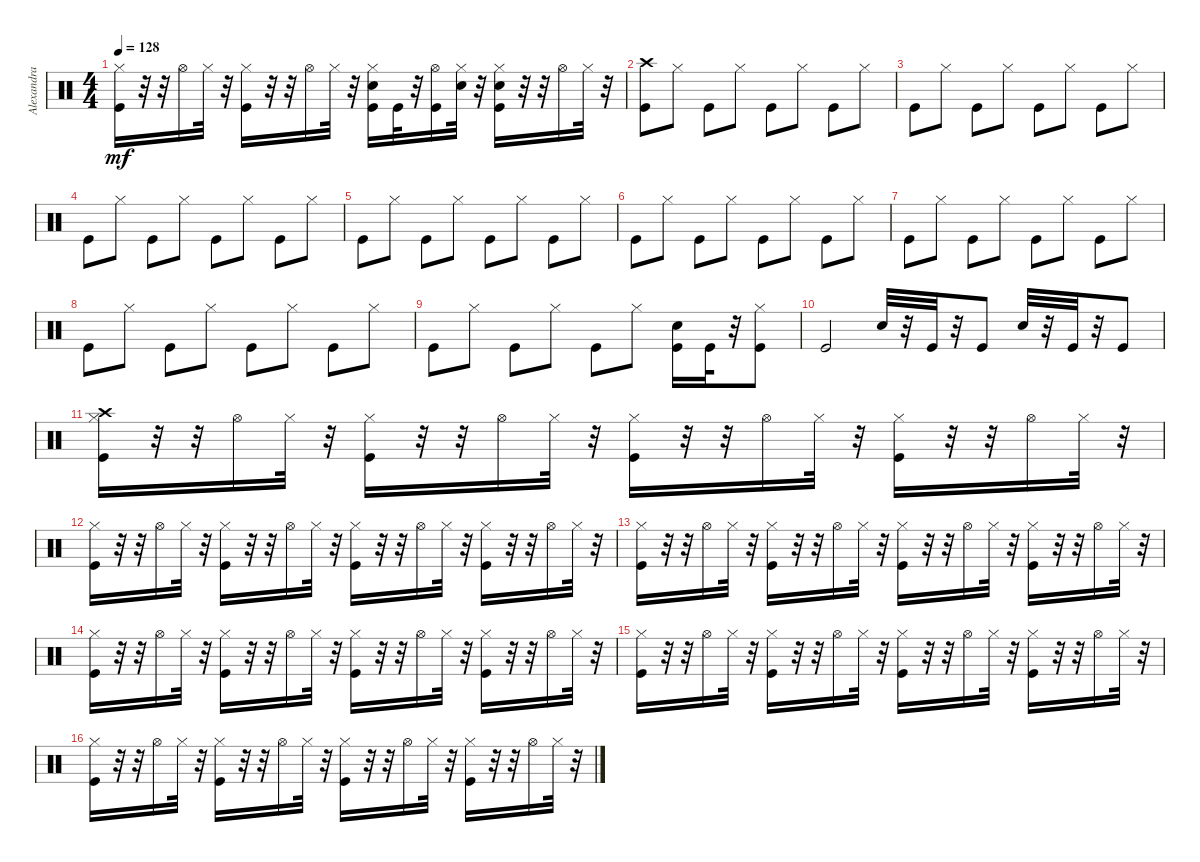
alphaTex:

\track ("Alexandra Stan - Mr Saxobeat" "Alexandra ") {instrument percussion}
\staff {score}
\articulation defaults
\ts (4 4)
\tempo 128
\clef neutral
\ks c
("Kick (hit)" "Hi-Hat (closed)").16{dy mf} r.32 r.32 "Hi-Hat (open)".16 "Hi-Hat (closed)".32 r.32 ("Kick (hit)" "Hi-Hat (closed)").16 r.32 r.32 "Hi-Hat (open)".16 "Hi-Hat (closed)".32 r.32 ("Kick (hit)" "Snare (hit) 2" "Hi-Hat (closed)").16 "Kick (hit)".32 r.32 ("Kick (hit)" "Hi-Hat (open)").16 ("Snare (hit) 2" "Hi-Hat (closed)").32 r.32 ("Kick (hit)" "Snare (hit) 2" "Hi-Hat (closed)").16 r.32 r.32 "Hi-Hat (open)".16 "Hi-Hat (closed)".32 r.32 |
("Kick (hit)" "Crash high (hit)").8 "Hi-Hat (closed)".8 "Kick (hit)".8 "Hi-Hat (closed)".8 "Kick (hit)".8 "Hi-Hat (closed)".8 "Kick (hit)".8 "Hi-Hat (closed)".8 |
"Kick (hit)".8 "Hi-Hat (closed)".8 "Kick (hit)".8 "Hi-Hat (closed)".8 "Kick (hit)".8 "Hi-Hat (closed)".8 "Kick (hit)".8 "Hi-Hat (closed)".8 |
"Kick (hit)".8 "Hi-Hat (closed)".8 "Kick (hit)".8 "Hi-Hat (closed)".8 "Kick (hit)".8 "Hi-Hat (closed)".8 "Kick (hit)".8 "Hi-Hat (closed)".8 |
"Kick (hit)".8 "Hi-Hat (closed)".8 "Kick (hit)".8 "Hi-Hat (closed)".8 "Kick (hit)".8 "Hi-Hat (closed)".8 "Kick (hit)".8 "Hi-Hat (closed)".8 |
"Kick (hit)".8 "Hi-Hat (closed)".8 "Kick (hit)".8 "Hi-Hat (closed)".8 "Kick (hit)".8 "Hi-Hat (closed)".8 "Kick (hit)".8 "Hi-Hat (closed)".8 |
"Kick (hit)".8 "Hi-Hat (closed)".8 "Kick (hit)".8 "Hi-Hat (closed)".8 "Kick (hit)".8 "Hi-Hat (closed)".8 "Kick (hit)".8 "Hi-Hat (closed)".8 |
"Kick (hit)".8 "Hi-Hat (closed)".8 "Kick (hit)".8 "Hi-Hat (closed)".8 "Kick (hit)".8 "Hi-Hat (closed)".8 "Kick (hit)".8 "Hi-Hat (closed)".8 |
"Kick (hit)".8 "Hi-Hat (closed)".8 "Kick (hit)".8 "Hi-Hat (closed)".8 "Kick (hit)".8 "Hi-Hat (closed)".8 ("Kick (hit)" "Snare (hit) 2").16 "Kick (hit)".32 r.32 ("Kick (hit)" "Hi-Hat (closed)").8 |
"Kick (hit)".2 "Snare (hit) 2".32 r.32 "Kick (hit)".32 r.32 "Kick (hit)".8 "Snare (hit) 2".32 r.32 "Kick (hit)".32 r.32 "Kick (hit)".8 |
("Kick (hit)" "Hi-Hat (closed)" "Crash high (hit)").16 r.32 r.32 "Hi-Hat (open)".16 "Hi-Hat (closed)".32 r.32 ("Kick (hit)" "Hi-Hat (closed)").16 r.32 r.32 "Hi-Hat (open)".16 "Hi-Hat (closed)".32 r.32 ("Kick (hit)" "Hi-Hat (closed)").16 r.32 r.32 "Hi-Hat (open)".16 "Hi-Hat (closed)".32 r.32 ("Kick (hit)" "Hi-Hat (closed)").16 r.32 r.32 "Hi-Hat (open)".16 "Hi-Hat (closed)".32 r.32 |
("Kick (hit)" "Hi-Hat (closed)").16 r.32 r.32 "Hi-Hat (open)".16 "Hi-Hat (closed)".32 r.32 ("Kick (hit)" "Hi-Hat (closed)").16 r.32 r.32 "Hi-Hat (open)".16 "Hi-Hat (closed)".32 r.32 ("Kick (hit)" "Hi-Hat (closed)").16 r.32 r.32 "Hi-Hat (open)".16 "Hi-Hat (closed)".32 r.32 ("Kick (hit)" "Hi-Hat (closed)").16 r.32 r.32 "Hi-Hat (open)".16 "Hi-Hat (closed)".32 r.32 |
("Kick (hit)" "Hi-Hat (closed)").16 r.32 r.32 "Hi-Hat (open)".16 "Hi-Hat (closed)".32 r.32 ("Kick (hit)" "Hi-Hat (closed)").16 r.32 r.32 "Hi-Hat (open)".16 "Hi-Hat (closed)".32 r.32 ("Kick (hit)" "Hi-Hat (closed)").16 r.32 r.32 "Hi-Hat (open)".16 "Hi-Hat (closed)".32 r.32 ("Kick (hit)" "Hi-Hat (closed)").16 r.32 r.32 "Hi-Hat (open)".16 "Hi-Hat (closed)".32 r.32 |
("Kick (hit)" "Hi-Hat (closed)").16 r.32 r.32 "Hi-Hat (open)".16 "Hi-Hat (closed)".32 r.32 ("Kick (hit)" "Hi-Hat (closed)").16 r.32 r.32 "Hi-Hat (open)".16 "Hi-Hat (closed)".32 r.32 ("Kick (hit)" "Hi-Hat (closed)").16 r.32 r.32 "Hi-Hat (open)".16 "Hi-Hat (closed)".32 r.32 ("Kick (hit)" "Hi-Hat (closed)").16 r.32 r.32 "Hi-Hat (open)".16 "Hi-Hat (closed)".32 r.32 |
("Kick (hit)" "Hi-Hat (closed)").16 r.32 r.32 "Hi-Hat (open)".16 "Hi-Hat (closed)".32 r.32 ("Kick (hit)" "Hi-Hat (closed)").16 r.32 r.32 "Hi-Hat (open)".16 "Hi-Hat (closed)".32 r.32 ("Kick (hit)" "Hi-Hat (closed)").16 r.32 r.32 "Hi-Hat (open)".16 "Hi-Hat (closed)".32 r.32 ("Kick (hit)" "Hi-Hat (closed)").16 r.32 r.32 "Hi-Hat (open)".16 "Hi-Hat (closed)".32 r.32 |
("Kick (hit)" "Hi-Hat (closed)").16 r.32 r.32 "Hi-Hat (open)".16 "Hi-Hat (closed)".32 r.32 ("Kick (hit)" "Hi-Hat (closed)").16 r.32 r.32 "Hi-Hat (open)".16 "Hi-Hat (closed)".32 r.32 ("Kick (hit)" "Hi-Hat (closed)").16 r.32 r.32 "Hi-Hat (open)".16 "Hi-Hat (closed)".32 r.32 ("Kick (hit)" "Hi-Hat (closed)").16 r.32 r.32 "Hi-Hat (open)".16 "Hi-Hat (closed)".32 r.32
